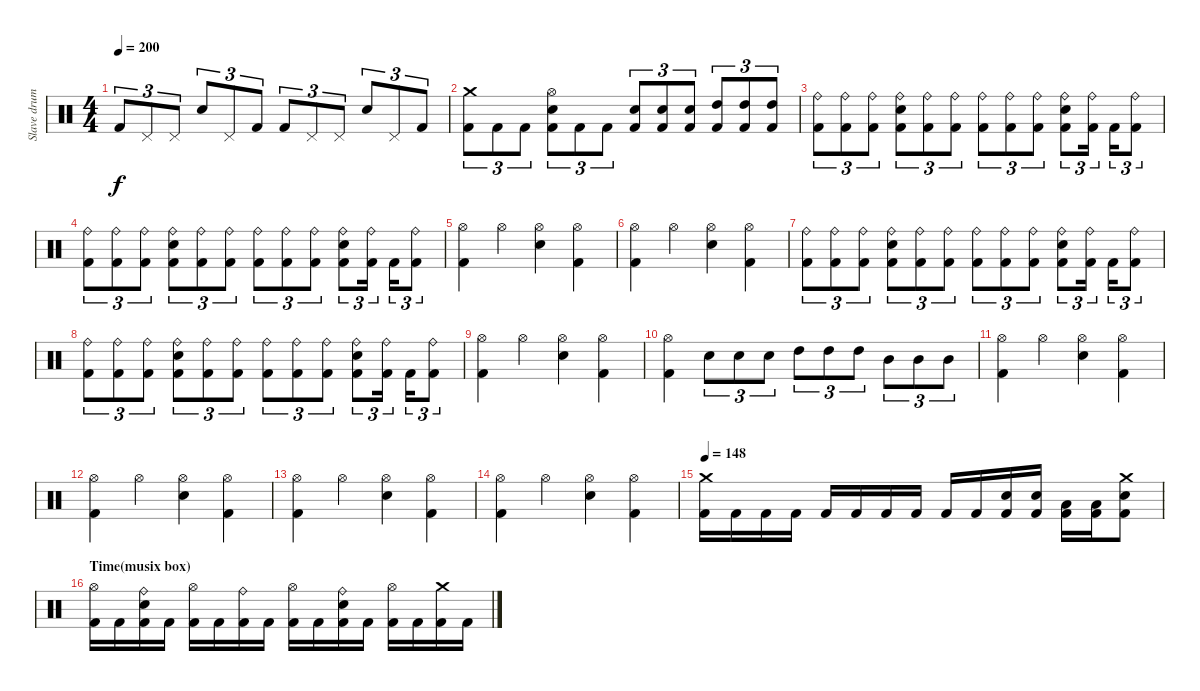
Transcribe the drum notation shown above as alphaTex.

\track ("Slave drum" "Slave drum") {instrument percussion}
\staff {score}
\articulation defaults
\ts (4 4)
\tempo 200
\clef neutral
\ks c "Kick (hit) 2".8{tu (3 2) dy f} "Pedal Hi-Hat (hit)".8{tu (3 2)} "Pedal Hi-Hat (hit)".8{tu (3 2)} "Electric Snare (hit)".8{tu (3 2)} "Pedal Hi-Hat (hit)".8{tu (3 2)} "Kick (hit) 2".8{tu (3 2)} "Kick (hit) 2".8{tu (3 2)} "Pedal Hi-Hat (hit)".8{tu (3 2)} "Pedal Hi-Hat (hit)".8{tu (3 2)} "Electric Snare (hit)".8{tu (3 2)} "Pedal Hi-Hat (hit)".8{tu (3 2)} "Kick (hit) 2".8{tu (3 2)}
|
("Crash medium (hit)" "Kick (hit) 2").8{tu (3 2)} "Kick (hit) 2".8{tu (3 2)} "Kick (hit) 2".8{tu (3 2)} ("Hi-Hat (open)" "Electric Snare (hit)" "Kick (hit) 2").8{tu (3 2)} "Kick (hit) 2".8{tu (3 2)} "Kick (hit) 2".8{tu (3 2)} ("Electric Snare (hit)" "Kick (hit) 2").8{tu (3 2)} ("Electric Snare (hit)" "Kick (hit) 2").8{tu (3 2)} ("Electric Snare (hit)" "Kick (hit) 2").8{tu (3 2)} ("High Tom (hit)" "Kick (hit) 2").8{tu (3 2)} ("High Tom (hit)" "Kick (hit) 2").8{tu (3 2)} ("High Tom (hit)" "Kick (hit) 2").8{tu (3 2)} |
("Ride (bell)" "Kick (hit) 2").8{tu (3 2)} ("Ride (bell)" "Kick (hit) 2").8{tu (3 2)} ("Ride (bell)" "Kick (hit) 2").8{tu (3 2)} ("Ride (bell)" "Electric Snare (hit)" "Kick (hit) 2").8{tu (3 2)} ("Ride (bell)" "Kick (hit) 2").8{tu (3 2)} ("Ride (bell)" "Kick (hit) 2").8{tu (3 2)} ("Ride (bell)" "Kick (hit) 2").8{tu (3 2)} ("Ride (bell)" "Kick (hit) 2").8{tu (3 2)} ("Ride (bell)" "Kick (hit) 2").8{tu (3 2)} ("Ride (bell)" "Electric Snare (hit)" "Kick (hit) 2").8{tu (3 2)} ("Ride (bell)" "Kick (hit) 2").16{tu (3 2)} "Kick (hit) 2".16{tu (3 2)} ("Ride (bell)" "Kick (hit) 2").8{tu (3 2)} |
("Ride (bell)" "Kick (hit) 2").8{tu (3 2)} ("Ride (bell)" "Kick (hit) 2").8{tu (3 2)} ("Ride (bell)" "Kick (hit) 2").8{tu (3 2)} ("Ride (bell)" "Electric Snare (hit)" "Kick (hit) 2").8{tu (3 2)} ("Ride (bell)" "Kick (hit) 2").8{tu (3 2)} ("Ride (bell)" "Kick (hit) 2").8{tu (3 2)} ("Ride (bell)" "Kick (hit) 2").8{tu (3 2)} ("Ride (bell)" "Kick (hit) 2").8{tu (3 2)} ("Ride (bell)" "Kick (hit) 2").8{tu (3 2)} ("Ride (bell)" "Electric Snare (hit)" "Kick (hit) 2").8{tu (3 2)} ("Ride (bell)" "Kick (hit) 2").16{tu (3 2)} "Kick (hit) 2".16{tu (3 2)} ("Ride (bell)" "Kick (hit) 2").8{tu (3 2)} |
("Hi-Hat (open)" "Kick (hit) 2").4 "Hi-Hat (open)".4 ("Hi-Hat (open)" "Electric Snare (hit)").4 ("Hi-Hat (open)" "Kick (hit) 2").4 |
("Hi-Hat (open)" "Kick (hit) 2").4 "Hi-Hat (open)".4 ("Hi-Hat (open)" "Electric Snare (hit)").4 ("Hi-Hat (open)" "Kick (hit) 2").4 |
("Ride (bell)" "Kick (hit) 2").8{tu (3 2)} ("Ride (bell)" "Kick (hit) 2").8{tu (3 2)} ("Ride (bell)" "Kick (hit) 2").8{tu (3 2)} ("Ride (bell)" "Electric Snare (hit)" "Kick (hit) 2").8{tu (3 2)} ("Ride (bell)" "Kick (hit) 2").8{tu (3 2)} ("Ride (bell)" "Kick (hit) 2").8{tu (3 2)} ("Ride (bell)" "Kick (hit) 2").8{tu (3 2)} ("Ride (bell)" "Kick (hit) 2").8{tu (3 2)} ("Ride (bell)" "Kick (hit) 2").8{tu (3 2)} ("Ride (bell)" "Electric Snare (hit)" "Kick (hit) 2").8{tu (3 2)} ("Ride (bell)" "Kick (hit) 2").16{tu (3 2)} "Kick (hit) 2".16{tu (3 2)} ("Ride (bell)" "Kick (hit) 2").8{tu (3 2)} |
("Ride (bell)" "Kick (hit) 2").8{tu (3 2)} ("Ride (bell)" "Kick (hit) 2").8{tu (3 2)} ("Ride (bell)" "Kick (hit) 2").8{tu (3 2)} ("Ride (bell)" "Electric Snare (hit)" "Kick (hit) 2").8{tu (3 2)} ("Ride (bell)" "Kick (hit) 2").8{tu (3 2)} ("Ride (bell)" "Kick (hit) 2").8{tu (3 2)} ("Ride (bell)" "Kick (hit) 2").8{tu (3 2)} ("Ride (bell)" "Kick (hit) 2").8{tu (3 2)} ("Ride (bell)" "Kick (hit) 2").8{tu (3 2)} ("Ride (bell)" "Electric Snare (hit)" "Kick (hit) 2").8{tu (3 2)} ("Ride (bell)" "Kick (hit) 2").16{tu (3 2)} "Kick (hit) 2".16{tu (3 2)} ("Ride (bell)" "Kick (hit) 2").8{tu (3 2)} |
("Hi-Hat (open)" "Kick (hit) 2").4 "Hi-Hat (open)".4 ("Hi-Hat (open)" "Electric Snare (hit)").4 ("Hi-Hat (open)" "Kick (hit) 2").4 |
("Hi-Hat (open)" "Kick (hit) 2").4 "Electric Snare (hit)".8{tu (3 2)} "Electric Snare (hit)".8{tu (3 2)} "Electric Snare (hit)".8{tu (3 2)} "High Tom (hit)".8{tu (3 2)} "High Tom (hit)".8{tu (3 2)} "High Tom (hit)".8{tu (3 2)} "Mid Tom (hit)".8{tu (3 2)} "Mid Tom (hit)".8{tu (3 2)} "Mid Tom (hit)".8{tu (3 2)} |
("Hi-Hat (open)" "Kick (hit) 2").4 "Hi-Hat (open)".4 ("Hi-Hat (open)" "Electric Snare (hit)").4 ("Hi-Hat (open)" "Kick (hit) 2").4 |
("Hi-Hat (open)" "Kick (hit) 2").4 "Hi-Hat (open)".4 ("Hi-Hat (open)" "Electric Snare (hit)").4 ("Hi-Hat (open)" "Kick (hit) 2").4 |
("Hi-Hat (open)" "Kick (hit) 2").4 "Hi-Hat (open)".4 ("Hi-Hat (open)" "Electric Snare (hit)").4 ("Hi-Hat (open)" "Kick (hit) 2").4 |
("Hi-Hat (open)" "Kick (hit) 2").4 "Hi-Hat (open)".4 ("Hi-Hat (open)" "Electric Snare (hit)").4 ("Hi-Hat (open)" "Kick (hit) 2").4 |
\tempo 148
("Crash medium (hit)" "Kick (hit) 2").16 "Kick (hit) 2".16 "Kick (hit) 2".16 "Kick (hit) 2".16 "Kick (hit) 2".16 "Kick (hit) 2".16 "Kick (hit) 2".16 "Kick (hit) 2".16 "Kick (hit) 2".16 "Kick (hit) 2".16 ("Electric Snare (hit)" "Kick (hit) 2").16 ("Electric Snare (hit)" "Kick (hit) 2").16 ("Low Tom (hit)" "Kick (hit) 2").16 ("Low Tom (hit)" "Kick (hit) 2").16 ("Crash medium (hit)" "Electric Snare (hit)" "Kick (hit) 2").8 |
\section ("" "Time(musix box)")
("Hi-Hat (open)" "Kick (hit) 2").16 "Kick (hit) 2".16 ("Ride (bell)" "Electric Snare (hit)" "Kick (hit) 2").16 "Kick (hit) 2".16 ("Hi-Hat (open)" "Kick (hit) 2").16 "Kick (hit) 2".16 ("Ride (bell)" "Kick (hit) 2").16 "Kick (hit) 2".16 ("Hi-Hat (open)" "Kick (hit) 2").16 "Kick (hit) 2".16 ("Ride (bell)" "Electric Snare (hit)" "Kick (hit) 2").16 "Kick (hit) 2".16 ("Hi-Hat (open)" "Kick (hit) 2").16 "Kick (hit) 2".16 ("Crash medium (hit)" "Kick (hit) 2").16 "Kick (hit) 2".16
